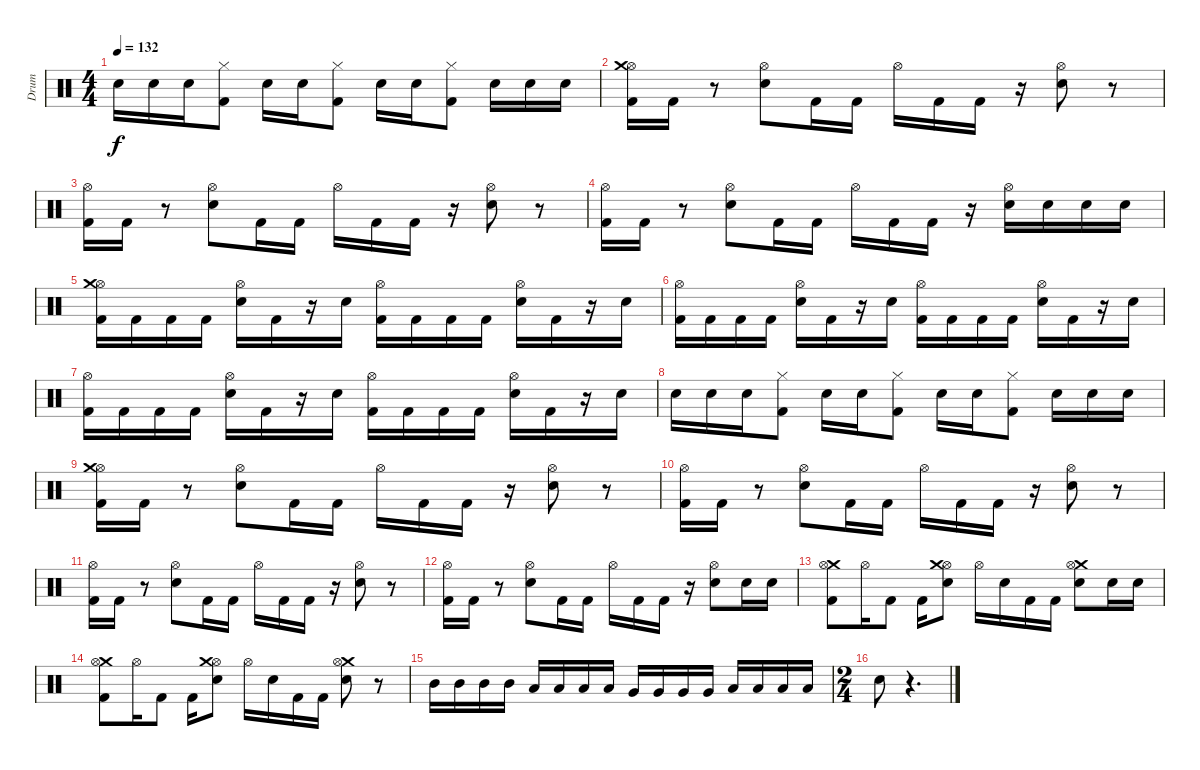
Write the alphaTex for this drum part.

\track (" Drum" " Drum") {instrument percussion}
\staff {score}
\articulation defaults
\ts (4 4)
\tempo 132
\clef neutral
\ks c "Electric Snare (hit)".16{dy f} "Electric Snare (hit)".16 "Electric Snare (hit)".16
("Hi-Hat (closed)" "Kick (hit) 2").8 "Electric Snare (hit)".16 "Electric Snare (hit)".16 ("Hi-Hat (closed)" "Kick (hit) 2").8 "Electric Snare (hit)".16 "Electric Snare (hit)".16 ("Hi-Hat (closed)" "Kick (hit) 2").8 "Electric Snare (hit)".16 "Electric Snare (hit)".16 "Electric Snare (hit)".16 |
("Kick (hit) 2" "Hi-Hat (open)" "Crash medium (hit)").16 "Kick (hit) 2".16 r.8 ("Electric Snare (hit)" "Hi-Hat (open)").8 "Kick (hit) 2".16 "Kick (hit) 2".16 "Hi-Hat (open)".16 "Kick (hit) 2".16 "Kick (hit) 2".16 r.16 ("Electric Snare (hit)" "Hi-Hat (open)").8 r.8 |
("Kick (hit) 2" "Hi-Hat (open)").16 "Kick (hit) 2".16 r.8 ("Electric Snare (hit)" "Hi-Hat (open)").8 "Kick (hit) 2".16 "Kick (hit) 2".16 "Hi-Hat (open)".16 "Kick (hit) 2".16 "Kick (hit) 2".16 r.16 ("Electric Snare (hit)" "Hi-Hat (open)").8 r.8 |
("Kick (hit) 2" "Hi-Hat (open)").16 "Kick (hit) 2".16 r.8 ("Electric Snare (hit)" "Hi-Hat (open)").8 "Kick (hit) 2".16 "Kick (hit) 2".16 "Hi-Hat (open)".16 "Kick (hit) 2".16 "Kick (hit) 2".16 r.16 ("Electric Snare (hit)" "Hi-Hat (open)").16 "Electric Snare (hit)".16 "Electric Snare (hit)".16 "Electric Snare (hit)".16 |
("Hi-Hat (open)" "Crash medium (hit)" "Kick (hit) 2").16 "Kick (hit) 2".16 "Kick (hit) 2".16 "Kick (hit) 2".16 ("Hi-Hat (open)" "Electric Snare (hit)").16 "Kick (hit) 2".16 r.16 "Electric Snare (hit)".16 ("Hi-Hat (open)" "Kick (hit) 2").16 "Kick (hit) 2".16 "Kick (hit) 2".16 "Kick (hit) 2".16 ("Hi-Hat (open)" "Electric Snare (hit)").16 "Kick (hit) 2".16 r.16 "Electric Snare (hit)".16 |
("Hi-Hat (open)" "Kick (hit) 2").16 "Kick (hit) 2".16 "Kick (hit) 2".16 "Kick (hit) 2".16 ("Hi-Hat (open)" "Electric Snare (hit)").16 "Kick (hit) 2".16 r.16 "Electric Snare (hit)".16 ("Hi-Hat (open)" "Kick (hit) 2").16 "Kick (hit) 2".16 "Kick (hit) 2".16 "Kick (hit) 2".16 ("Hi-Hat (open)" "Electric Snare (hit)").16 "Kick (hit) 2".16 r.16 "Electric Snare (hit)".16 |
("Hi-Hat (open)" "Kick (hit) 2").16 "Kick (hit) 2".16 "Kick (hit) 2".16 "Kick (hit) 2".16 ("Hi-Hat (open)" "Electric Snare (hit)").16 "Kick (hit) 2".16 r.16 "Electric Snare (hit)".16 ("Hi-Hat (open)" "Kick (hit) 2").16 "Kick (hit) 2".16 "Kick (hit) 2".16 "Kick (hit) 2".16 ("Hi-Hat (open)" "Electric Snare (hit)").16 "Kick (hit) 2".16 r.16 "Electric Snare (hit)".16 |
"Electric Snare (hit)".16 "Electric Snare (hit)".16 "Electric Snare (hit)".16 ("Hi-Hat (closed)" "Kick (hit) 2").8 "Electric Snare (hit)".16 "Electric Snare (hit)".16 ("Hi-Hat (closed)" "Kick (hit) 2").8 "Electric Snare (hit)".16 "Electric Snare (hit)".16 ("Hi-Hat (closed)" "Kick (hit) 2").8 "Electric Snare (hit)".16 "Electric Snare (hit)".16 "Electric Snare (hit)".16 |
("Kick (hit) 2" "Hi-Hat (open)" "Crash medium (hit)").16 "Kick (hit) 2".16 r.8 ("Electric Snare (hit)" "Hi-Hat (open)").8 "Kick (hit) 2".16 "Kick (hit) 2".16 "Hi-Hat (open)".16 "Kick (hit) 2".16 "Kick (hit) 2".16 r.16 ("Electric Snare (hit)" "Hi-Hat (open)").8 r.8 |
("Kick (hit) 2" "Hi-Hat (open)").16 "Kick (hit) 2".16 r.8 ("Electric Snare (hit)" "Hi-Hat (open)").8 "Kick (hit) 2".16 "Kick (hit) 2".16 "Hi-Hat (open)".16 "Kick (hit) 2".16 "Kick (hit) 2".16 r.16 ("Electric Snare (hit)" "Hi-Hat (open)").8 r.8 |
("Kick (hit) 2" "Hi-Hat (open)").16 "Kick (hit) 2".16 r.8 ("Electric Snare (hit)" "Hi-Hat (open)").8 "Kick (hit) 2".16 "Kick (hit) 2".16 "Hi-Hat (open)".16 "Kick (hit) 2".16 "Kick (hit) 2".16 r.16 ("Electric Snare (hit)" "Hi-Hat (open)").8 r.8 |
("Kick (hit) 2" "Hi-Hat (open)").16 "Kick (hit) 2".16 r.8 ("Electric Snare (hit)" "Hi-Hat (open)").8 "Kick (hit) 2".16 "Kick (hit) 2".16 "Hi-Hat (open)".16 "Kick (hit) 2".16 "Kick (hit) 2".16 r.16 ("Electric Snare (hit)" "Hi-Hat (open)").8 "Electric Snare (hit)".16 "Electric Snare (hit)".16 |
("Crash medium (hit)" "Hi-Hat (open)" "Kick (hit) 2").8 "Hi-Hat (open)".16 "Kick (hit) 2".8 "Kick (hit) 2".16 ("Hi-Hat (open)" "Crash medium (hit)" "Electric Snare (hit)").8 "Hi-Hat (open)".16 "Electric Snare (hit)".16 "Kick (hit) 2".16 "Kick (hit) 2".16 ("Crash medium (hit)" "Hi-Hat (open)" "Electric Snare (hit)").8 "Electric Snare (hit)".16 "Electric Snare (hit)".16 |
("Crash medium (hit)" "Hi-Hat (open)" "Kick (hit) 2").8 "Hi-Hat (open)".16 "Kick (hit) 2".8 "Kick (hit) 2".16 ("Hi-Hat (open)" "Crash medium (hit)" "Electric Snare (hit)").8 "Hi-Hat (open)".16 "Electric Snare (hit)".16 "Kick (hit) 2".16 "Kick (hit) 2".16 ("Crash medium (hit)" "Hi-Hat (open)" "Electric Snare (hit)").8 r.8 |
"Mid Tom (hit)".16 "Mid Tom (hit)".16 "Mid Tom (hit)".16 "Mid Tom (hit)".16 "Low Tom (hit)".16 "Low Tom (hit)".16 "Low Tom (hit)".16 "Low Tom (hit)".16 "Very Low Tom (hit)".16 "Very Low Tom (hit)".16 "Very Low Tom (hit)".16 "Very Low Tom (hit)".16 "Low Floor Tom (hit)".16 "Low Floor Tom (hit)".16 "Low Floor Tom (hit)".16 "Low Floor Tom (hit)".16 |
\ts (2 4)
"Electric Snare (hit)".8 r.4{d}
